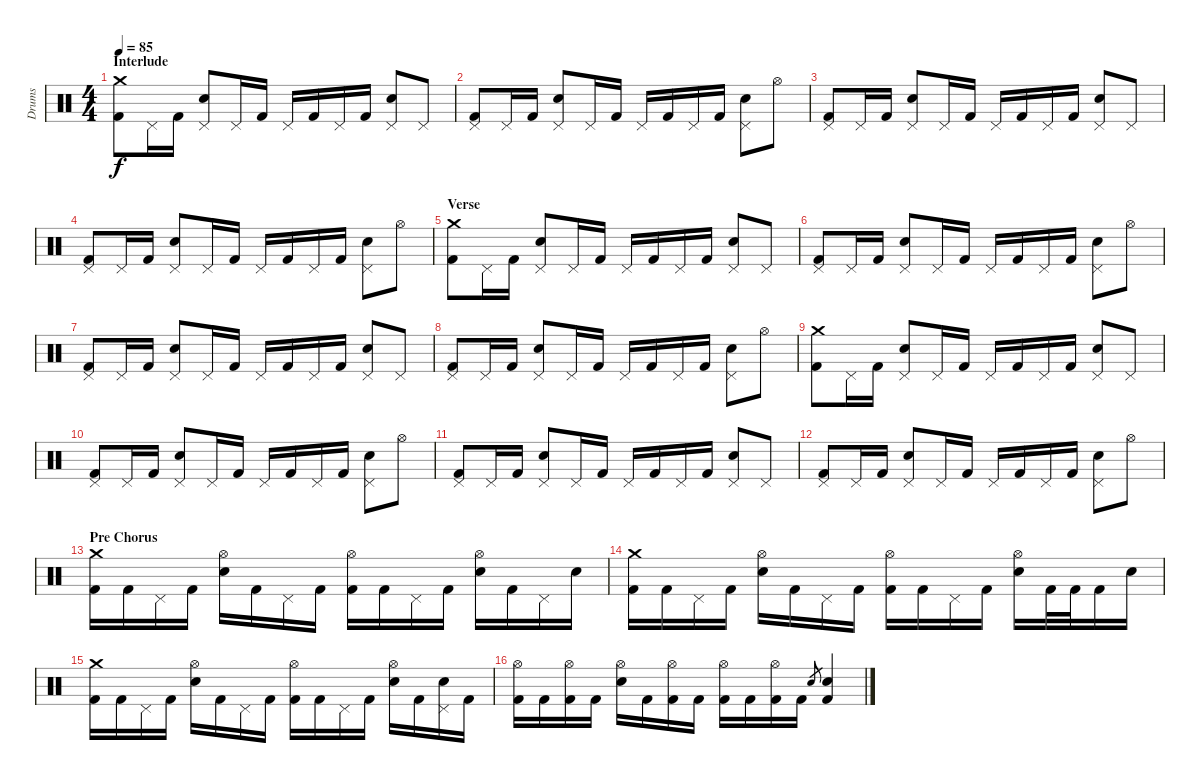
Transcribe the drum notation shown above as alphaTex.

\track ("Drums" "Drums") {instrument percussion}
\staff {score}
\articulation defaults
\ts (4 4)
\section ("" "Interlude")
\tempo 85
\clef neutral
\ks c
("Crash medium (hit)" "Kick (hit) 2").8{dy f} "Pedal Hi-Hat (hit)".16 "Kick (hit) 2".16 ("Pedal Hi-Hat (hit)" "Electric Snare (hit)").8 "Pedal Hi-Hat (hit)".16 "Kick (hit) 2".16 "Pedal Hi-Hat (hit)".16 "Kick (hit) 2".16 "Pedal Hi-Hat (hit)".16 "Kick (hit) 2".16 ("Pedal Hi-Hat (hit)" "Electric Snare (hit)").8 "Pedal Hi-Hat (hit)".8 |
("Pedal Hi-Hat (hit)" "Kick (hit) 2").8 "Pedal Hi-Hat (hit)".16 "Kick (hit) 2".16 ("Pedal Hi-Hat (hit)" "Electric Snare (hit)").8 "Pedal Hi-Hat (hit)".16 "Kick (hit) 2".16 "Pedal Hi-Hat (hit)".16 "Kick (hit) 2".16 "Pedal Hi-Hat (hit)".16 "Kick (hit) 2".16 ("Pedal Hi-Hat (hit)" "Electric Snare (hit)").8 "Hi-Hat (open)".8 |
("Pedal Hi-Hat (hit)" "Kick (hit) 2").8 "Pedal Hi-Hat (hit)".16 "Kick (hit) 2".16 ("Pedal Hi-Hat (hit)" "Electric Snare (hit)").8 "Pedal Hi-Hat (hit)".16 "Kick (hit) 2".16 "Pedal Hi-Hat (hit)".16 "Kick (hit) 2".16 "Pedal Hi-Hat (hit)".16 "Kick (hit) 2".16 ("Pedal Hi-Hat (hit)" "Electric Snare (hit)").8 "Pedal Hi-Hat (hit)".8 |
("Pedal Hi-Hat (hit)" "Kick (hit) 2").8 "Pedal Hi-Hat (hit)".16 "Kick (hit) 2".16 ("Pedal Hi-Hat (hit)" "Electric Snare (hit)").8 "Pedal Hi-Hat (hit)".16 "Kick (hit) 2".16 "Pedal Hi-Hat (hit)".16 "Kick (hit) 2".16 "Pedal Hi-Hat (hit)".16 "Kick (hit) 2".16 ("Pedal Hi-Hat (hit)" "Electric Snare (hit)").8 "Hi-Hat (open)".8 |
\section ("" "Verse")
("Crash medium (hit)" "Kick (hit) 2").8 "Pedal Hi-Hat (hit)".16 "Kick (hit) 2".16 ("Pedal Hi-Hat (hit)" "Electric Snare (hit)").8 "Pedal Hi-Hat (hit)".16 "Kick (hit) 2".16 "Pedal Hi-Hat (hit)".16 "Kick (hit) 2".16 "Pedal Hi-Hat (hit)".16 "Kick (hit) 2".16 ("Pedal Hi-Hat (hit)" "Electric Snare (hit)").8 "Pedal Hi-Hat (hit)".8 |
("Pedal Hi-Hat (hit)" "Kick (hit) 2").8 "Pedal Hi-Hat (hit)".16 "Kick (hit) 2".16 ("Pedal Hi-Hat (hit)" "Electric Snare (hit)").8 "Pedal Hi-Hat (hit)".16 "Kick (hit) 2".16 "Pedal Hi-Hat (hit)".16 "Kick (hit) 2".16 "Pedal Hi-Hat (hit)".16 "Kick (hit) 2".16 ("Pedal Hi-Hat (hit)" "Electric Snare (hit)").8 "Hi-Hat (open)".8 |
("Pedal Hi-Hat (hit)" "Kick (hit) 2").8 "Pedal Hi-Hat (hit)".16 "Kick (hit) 2".16 ("Pedal Hi-Hat (hit)" "Electric Snare (hit)").8 "Pedal Hi-Hat (hit)".16 "Kick (hit) 2".16 "Pedal Hi-Hat (hit)".16 "Kick (hit) 2".16 "Pedal Hi-Hat (hit)".16 "Kick (hit) 2".16 ("Pedal Hi-Hat (hit)" "Electric Snare (hit)").8 "Pedal Hi-Hat (hit)".8 |
("Pedal Hi-Hat (hit)" "Kick (hit) 2").8 "Pedal Hi-Hat (hit)".16 "Kick (hit) 2".16 ("Pedal Hi-Hat (hit)" "Electric Snare (hit)").8 "Pedal Hi-Hat (hit)".16 "Kick (hit) 2".16 "Pedal Hi-Hat (hit)".16 "Kick (hit) 2".16 "Pedal Hi-Hat (hit)".16 "Kick (hit) 2".16 ("Pedal Hi-Hat (hit)" "Electric Snare (hit)").8 "Hi-Hat (open)".8 |
("Crash medium (hit)" "Kick (hit) 2").8 "Pedal Hi-Hat (hit)".16 "Kick (hit) 2".16 ("Pedal Hi-Hat (hit)" "Electric Snare (hit)").8 "Pedal Hi-Hat (hit)".16 "Kick (hit) 2".16 "Pedal Hi-Hat (hit)".16 "Kick (hit) 2".16 "Pedal Hi-Hat (hit)".16 "Kick (hit) 2".16 ("Pedal Hi-Hat (hit)" "Electric Snare (hit)").8 "Pedal Hi-Hat (hit)".8 |
("Pedal Hi-Hat (hit)" "Kick (hit) 2").8 "Pedal Hi-Hat (hit)".16 "Kick (hit) 2".16 ("Pedal Hi-Hat (hit)" "Electric Snare (hit)").8 "Pedal Hi-Hat (hit)".16 "Kick (hit) 2".16 "Pedal Hi-Hat (hit)".16 "Kick (hit) 2".16 "Pedal Hi-Hat (hit)".16 "Kick (hit) 2".16 ("Pedal Hi-Hat (hit)" "Electric Snare (hit)").8 "Hi-Hat (open)".8 |
("Pedal Hi-Hat (hit)" "Kick (hit) 2").8 "Pedal Hi-Hat (hit)".16 "Kick (hit) 2".16 ("Pedal Hi-Hat (hit)" "Electric Snare (hit)").8 "Pedal Hi-Hat (hit)".16 "Kick (hit) 2".16 "Pedal Hi-Hat (hit)".16 "Kick (hit) 2".16 "Pedal Hi-Hat (hit)".16 "Kick (hit) 2".16 ("Pedal Hi-Hat (hit)" "Electric Snare (hit)").8 "Pedal Hi-Hat (hit)".8 |
("Pedal Hi-Hat (hit)" "Kick (hit) 2").8 "Pedal Hi-Hat (hit)".16 "Kick (hit) 2".16 ("Pedal Hi-Hat (hit)" "Electric Snare (hit)").8 "Pedal Hi-Hat (hit)".16 "Kick (hit) 2".16 "Pedal Hi-Hat (hit)".16 "Kick (hit) 2".16 "Pedal Hi-Hat (hit)".16 "Kick (hit) 2".16 ("Pedal Hi-Hat (hit)" "Electric Snare (hit)").8 "Hi-Hat (open)".8 |
\section ("" "Pre Chorus")
("Crash medium (hit)" "Kick (hit) 2").16 "Kick (hit) 2".16 "Pedal Hi-Hat (hit)".16 "Kick (hit) 2".16 ("Hi-Hat (open)" "Electric Snare (hit)").16 "Kick (hit) 2".16 "Pedal Hi-Hat (hit)".16 "Kick (hit) 2".16 ("Hi-Hat (open)" "Kick (hit) 2").16 "Kick (hit) 2".16 "Pedal Hi-Hat (hit)".16 "Kick (hit) 2".16 ("Hi-Hat (open)" "Electric Snare (hit)").16 "Kick (hit) 2".16 "Pedal Hi-Hat (hit)".16 "Electric Snare (hit)".16 |
("Crash medium (hit)" "Kick (hit) 2").16 "Kick (hit) 2".16 "Pedal Hi-Hat (hit)".16 "Kick (hit) 2".16 ("Hi-Hat (open)" "Electric Snare (hit)").16 "Kick (hit) 2".16 "Pedal Hi-Hat (hit)".16 "Kick (hit) 2".16 ("Hi-Hat (open)" "Kick (hit) 2").16 "Kick (hit) 2".16 "Pedal Hi-Hat (hit)".16 "Kick (hit) 2".16 ("Hi-Hat (open)" "Electric Snare (hit)").16 "Kick (hit) 2".32 "Kick (hit) 2".32 "Kick (hit) 2".16 "Electric Snare (hit)".16 |
("Crash medium (hit)" "Kick (hit) 2").16 "Kick (hit) 2".16 "Pedal Hi-Hat (hit)".16 "Kick (hit) 2".16 ("Hi-Hat (open)" "Electric Snare (hit)").16 "Kick (hit) 2".16 "Pedal Hi-Hat (hit)".16 "Kick (hit) 2".16 ("Hi-Hat (open)" "Kick (hit) 2").16 "Kick (hit) 2".16 "Pedal Hi-Hat (hit)".16 "Kick (hit) 2".16 ("Hi-Hat (open)" "Electric Snare (hit)").16 "Kick (hit) 2".16 ("Pedal Hi-Hat (hit)" "Electric Snare (hit)").16 "Kick (hit) 2".16 |
("Hi-Hat (open)" "Kick (hit) 2").16 "Kick (hit) 2".16 ("Hi-Hat (open)" "Kick (hit) 2").16 "Kick (hit) 2".16 ("Hi-Hat (open)" "Electric Snare (hit)").16 "Kick (hit) 2".16 ("Hi-Hat (open)" "Kick (hit) 2").16 "Kick (hit) 2".16 ("Hi-Hat (open)" "Kick (hit) 2").16 "Kick (hit) 2".16 ("Hi-Hat (open)" "Kick (hit) 2").16 "Kick (hit) 2".16 "Electric Snare (hit)".8{gr} ("Electric Snare (hit)" "Kick (hit) 2").4
